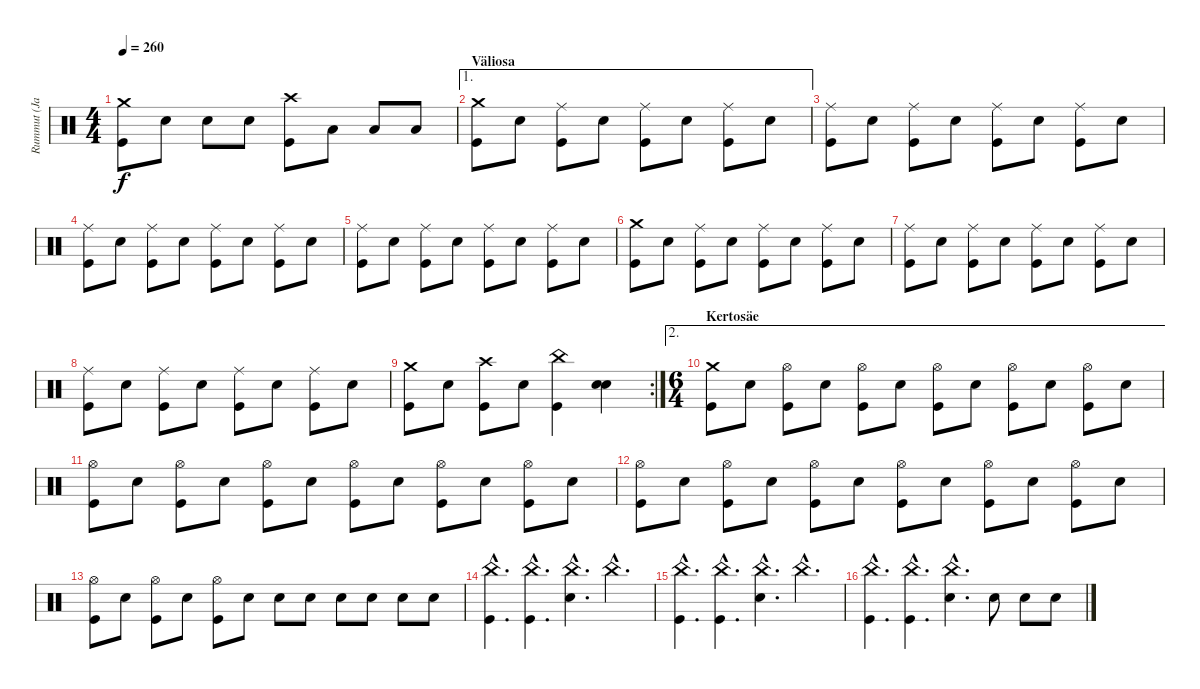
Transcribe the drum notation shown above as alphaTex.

\track ("Rummut (Janne)" "Rummut (Ja") {instrument percussion}
\staff {score}
\articulation defaults
\ts (4 4)
\tempo 260
\clef neutral
\ks c
("Crash medium (hit)" "Kick (hit)").8{dy f} "Snare (hit) 2".8 "Snare (hit) 2".8 "Snare (hit) 2".8 ("Crash high (hit)" "Kick (hit)").8 "Low Tom (hit)".8 "Low Tom (hit)".8 "Low Tom (hit)".8 |
\ae 1
\section ("" "Väliosa")
("Crash medium (hit)" "Kick (hit)").8 "Snare (hit) 2".8 ("Ride (middle)" "Kick (hit)").8 "Snare (hit) 2".8 ("Ride (middle)" "Kick (hit)").8 "Snare (hit) 2".8 ("Ride (middle)" "Kick (hit)").8 "Snare (hit) 2".8 |
("Ride (middle)" "Kick (hit)").8 "Snare (hit) 2".8 ("Ride (middle)" "Kick (hit)").8 "Snare (hit) 2".8 ("Ride (middle)" "Kick (hit)").8 "Snare (hit) 2".8 ("Ride (middle)" "Kick (hit)").8 "Snare (hit) 2".8 |
("Ride (middle)" "Kick (hit)").8 "Snare (hit) 2".8 ("Ride (middle)" "Kick (hit)").8 "Snare (hit) 2".8 ("Ride (middle)" "Kick (hit)").8 "Snare (hit) 2".8 ("Ride (middle)" "Kick (hit)").8 "Snare (hit) 2".8 |
("Ride (middle)" "Kick (hit)").8 "Snare (hit) 2".8 ("Ride (middle)" "Kick (hit)").8 "Snare (hit) 2".8 ("Ride (middle)" "Kick (hit)").8 "Snare (hit) 2".8 ("Ride (middle)" "Kick (hit)").8 "Snare (hit) 2".8 |
("Crash medium (hit)" "Kick (hit)").8 "Snare (hit) 2".8 ("Ride (middle)" "Kick (hit)").8 "Snare (hit) 2".8 ("Ride (middle)" "Kick (hit)").8 "Snare (hit) 2".8 ("Ride (middle)" "Kick (hit)").8 "Snare (hit) 2".8 |
("Ride (middle)" "Kick (hit)").8 "Snare (hit) 2".8 ("Ride (middle)" "Kick (hit)").8 "Snare (hit) 2".8 ("Ride (middle)" "Kick (hit)").8 "Snare (hit) 2".8 ("Ride (middle)" "Kick (hit)").8 "Snare (hit) 2".8 |
("Ride (middle)" "Kick (hit)").8 "Snare (hit) 2".8 ("Ride (middle)" "Kick (hit)").8 "Snare (hit) 2".8 ("Ride (middle)" "Kick (hit)").8 "Snare (hit) 2".8 ("Ride (middle)" "Kick (hit)").8 "Snare (hit) 2".8 |
\rc 2
("Crash medium (hit)" "Kick (hit)").8 "Snare (hit) 2".8 ("Crash high (hit)" "Kick (hit)").8 "Snare (hit) 2".8 ("China (hit)" "Kick (hit)").4 ("Snare (hit) 2" "Snare (hit) 2").4 |
\ae 2
\ts (6 4)
\section ("" "Kertosäe")
("Crash medium (hit)" "Kick (hit)").8 "Snare (hit) 2".8 ("Hi-Hat (open)" "Kick (hit)").8 "Snare (hit) 2".8 ("Hi-Hat (open)" "Kick (hit)").8 "Snare (hit) 2".8 ("Hi-Hat (open)" "Kick (hit)").8 "Snare (hit) 2".8 ("Hi-Hat (open)" "Kick (hit)").8 "Snare (hit) 2".8 ("Hi-Hat (open)" "Kick (hit)").8 "Snare (hit) 2".8 |
("Hi-Hat (open)" "Kick (hit)").8 "Snare (hit) 2".8 ("Hi-Hat (open)" "Kick (hit)").8 "Snare (hit) 2".8 ("Hi-Hat (open)" "Kick (hit)").8 "Snare (hit) 2".8 ("Hi-Hat (open)" "Kick (hit)").8 "Snare (hit) 2".8 ("Hi-Hat (open)" "Kick (hit)").8 "Snare (hit) 2".8 ("Hi-Hat (open)" "Kick (hit)").8 "Snare (hit) 2".8 |
("Hi-Hat (open)" "Kick (hit)").8 "Snare (hit) 2".8 ("Hi-Hat (open)" "Kick (hit)").8 "Snare (hit) 2".8 ("Hi-Hat (open)" "Kick (hit)").8 "Snare (hit) 2".8 ("Hi-Hat (open)" "Kick (hit)").8 "Snare (hit) 2".8 ("Hi-Hat (open)" "Kick (hit)").8 "Snare (hit) 2".8 ("Hi-Hat (open)" "Kick (hit)").8 "Snare (hit) 2".8 |
("Hi-Hat (open)" "Kick (hit)").8 "Snare (hit) 2".8 ("Hi-Hat (open)" "Kick (hit)").8 "Snare (hit) 2".8 ("Hi-Hat (open)" "Kick (hit)").8 "Snare (hit) 2".8 "Snare (hit) 2".8 "Snare (hit) 2".8 "Snare (hit) 2".8 "Snare (hit) 2".8 "Snare (hit) 2".8 "Snare (hit) 2".8 |
("China (hit)"{hac} "Kick (hit)"{hac}).4{d} ("China (hit)"{hac} "Kick (hit)"{hac}).4{d} ("China (hit)"{hac} "Snare (hit) 2"{hac}).4{d} "China (hit)"{hac}.4{d} |
("China (hit)"{hac} "Kick (hit)"{hac}).4{d} ("China (hit)"{hac} "Kick (hit)"{hac}).4{d} ("China (hit)"{hac} "Snare (hit) 2"{hac}).4{d} "China (hit)"{hac}.4{d} |
("China (hit)"{hac} "Kick (hit)"{hac}).4{d} ("China (hit)"{hac} "Kick (hit)"{hac}).4{d} ("China (hit)"{hac} "Snare (hit) 2"{hac}).4{d} "Snare (hit) 2".8 "Snare (hit) 2".8 "Snare (hit) 2".8
